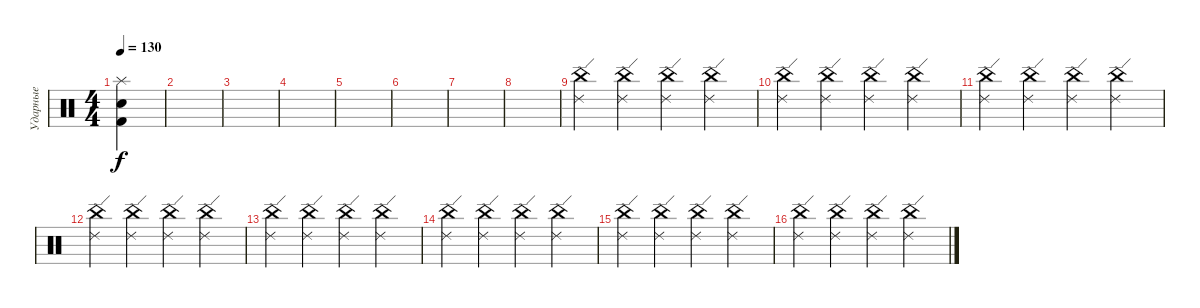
\track ("Ударные" "Ударные") {instrument percussion}
\staff {score}
\articulation defaults
\ts (4 4)
\tempo 130
\clef neutral
\ks c
("Snare (hit) 2" "Kick (hit) 2" "Splash (hit)").4{dy f} |
|
|
|
|
|
|
|
("Ride (edge) 2" "China (hit)").4 ("Ride (edge) 2" "China (hit)").4 ("Ride (edge) 2" "China (hit)").4 ("Ride (edge) 2" "China (hit)").4 |
("Ride (edge) 2" "China (hit)").4 ("Ride (edge) 2" "China (hit)").4 ("Ride (edge) 2" "China (hit)").4 ("Ride (edge) 2" "China (hit)").4 |
("Ride (edge) 2" "China (hit)").4 ("Ride (edge) 2" "China (hit)").4 ("Ride (edge) 2" "China (hit)").4 ("Ride (edge) 2" "China (hit)").4 |
("Ride (edge) 2" "China (hit)").4 ("Ride (edge) 2" "China (hit)").4 ("Ride (edge) 2" "China (hit)").4 ("Ride (edge) 2" "China (hit)").4 |
("Ride (edge) 2" "China (hit)").4 ("Ride (edge) 2" "China (hit)").4 ("Ride (edge) 2" "China (hit)").4 ("Ride (edge) 2" "China (hit)").4 |
("Ride (edge) 2" "China (hit)").4 ("Ride (edge) 2" "China (hit)").4 ("Ride (edge) 2" "China (hit)").4 ("Ride (edge) 2" "China (hit)").4 |
("Ride (edge) 2" "China (hit)").4 ("Ride (edge) 2" "China (hit)").4 ("Ride (edge) 2" "China (hit)").4 ("Ride (edge) 2" "China (hit)").4 |
("Ride (edge) 2" "China (hit)").4 ("Ride (edge) 2" "China (hit)").4 ("Ride (edge) 2" "China (hit)").4 ("Ride (edge) 2" "China (hit)").4
